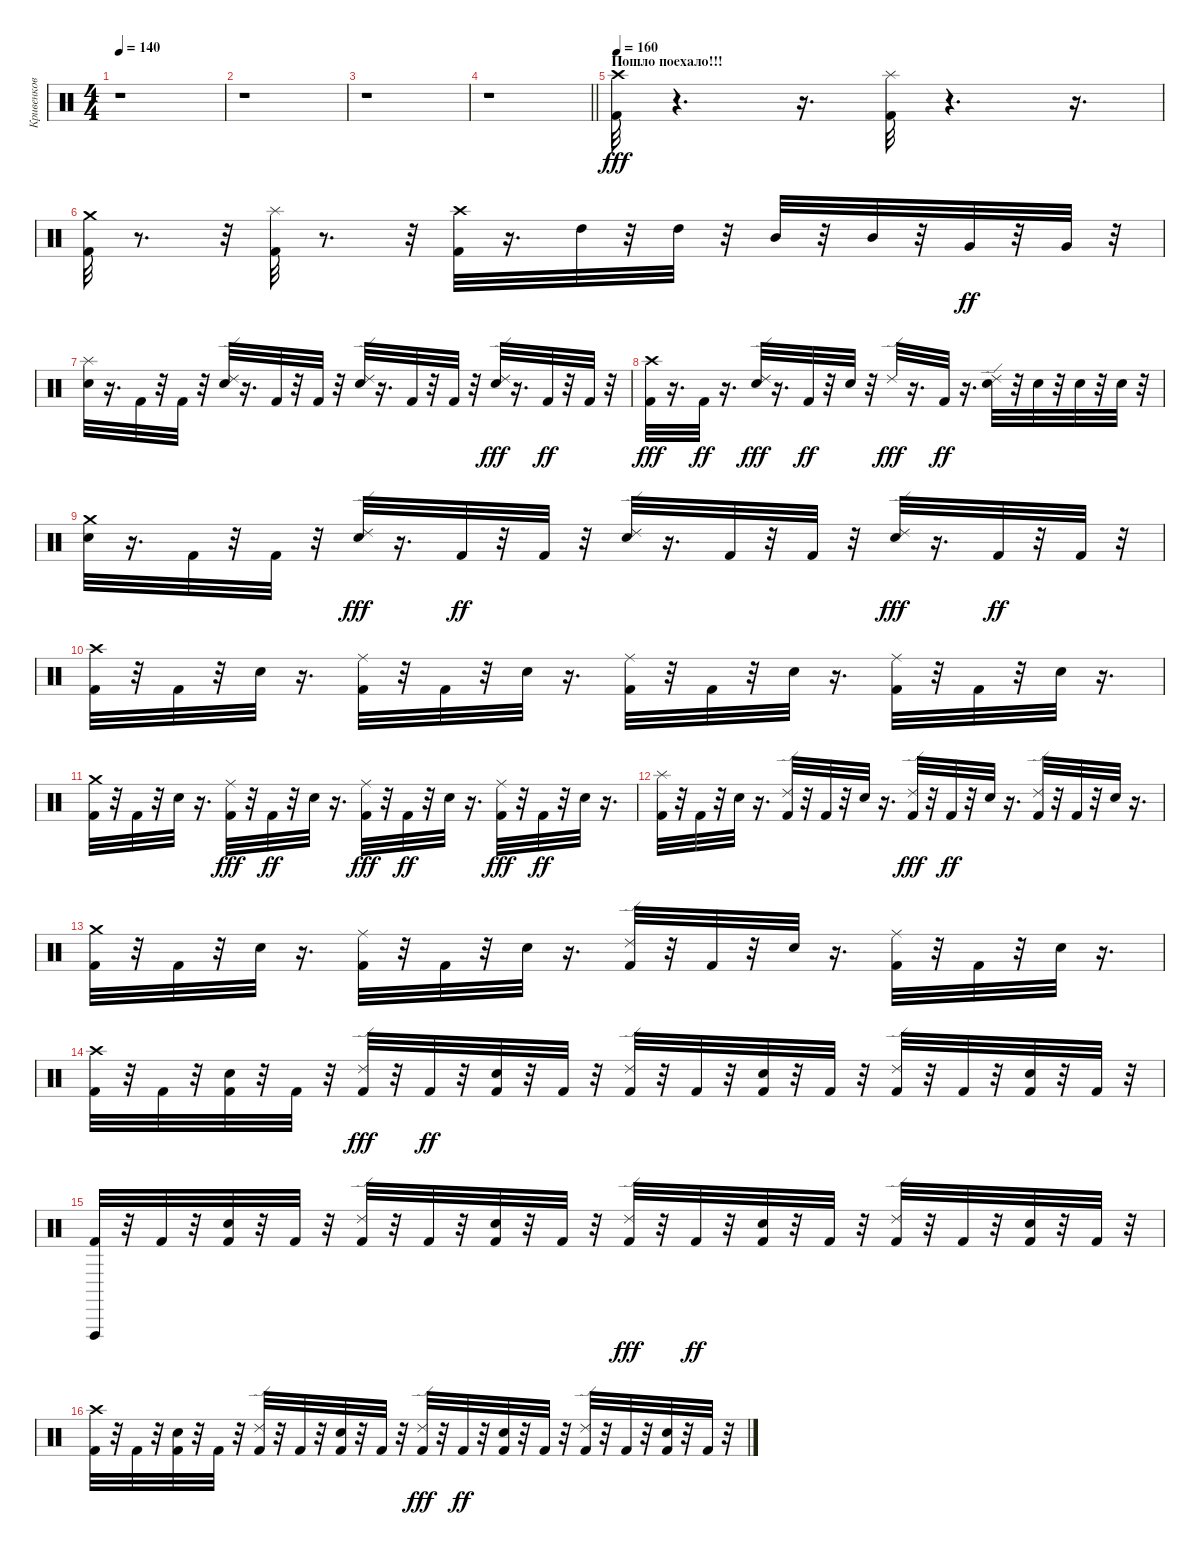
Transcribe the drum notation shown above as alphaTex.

\track ("Кривенков" "Кривенков") {instrument percussion}
\staff {score}
\articulation defaults
\ts (4 4)
\tempo 140
\clef neutral
\ks c
r.1{dy fff} |
r.1 |
r.1 |
\barLineRight lightlight
r.1 |
\section ("" "Пошло поехало!!!")
\tempo 160
("Kick (hit) 2" "Crash high (hit)").32 r.4{d} r.16{d} ("Splash (hit)" "Kick (hit) 2").32 r.4{d} r.16{d} |
("Kick (hit) 2" "Crash medium (hit)").32 r.8{d} r.32 ("Splash (hit)" "Kick (hit) 2").32 r.8{d} r.32 ("Kick (hit) 2" "Crash high (hit)").32 r.16{d} "High Tom (hit)".32 r.32 "High Tom (hit)".32 r.32 "Mid Tom (hit)".32 r.32 "Mid Tom (hit)".32 r.32 "Very Low Tom (hit)".32{dy ff} r.32 "Very Low Tom (hit)".32 r.32 |
("Electric Snare (hit)" "Splash (hit)").32 r.16{d} "Kick (hit) 2".32 r.32 "Kick (hit) 2".32 r.32 ("Ride (edge) 2" "Electric Snare (hit)").32 r.16{d} "Kick (hit) 2".32 r.32 "Kick (hit) 2".32 r.32 ("Ride (edge) 2" "Electric Snare (hit)").32 r.16{d} "Kick (hit) 2".32 r.32 "Kick (hit) 2".32 r.32 ("Electric Snare (hit)" "Ride (edge) 2").32{dy fff} r.16{d} "Kick (hit) 2".32{dy ff} r.32 "Kick (hit) 2".32 r.32 |
("Kick (hit) 2" "Crash high (hit)").32{dy fff} r.16{d} "Kick (hit) 2".32{dy ff} r.16{d} ("Electric Snare (hit)" "Ride (edge) 2").32{dy fff} r.16{d} "Kick (hit) 2".32{dy ff} r.32 "Electric Snare (hit)".32 r.32 "Ride (edge) 2".32{dy fff} r.16{d} "Kick (hit) 2".32{dy ff} r.16{d} ("Ride (edge) 2" "Electric Snare (hit)").32 r.32 "Electric Snare (hit)".32 r.32 "Electric Snare (hit)".32 r.32 "Electric Snare (hit)".32 r.32 |
("Crash medium (hit)" "Electric Snare (hit)").32 r.16{d} "Kick (hit) 2".32 r.32 "Kick (hit) 2".32 r.32 ("Electric Snare (hit)" "Ride (edge) 2").32{dy fff} r.16{d} "Kick (hit) 2".32{dy ff} r.32 "Kick (hit) 2".32 r.32 ("Ride (edge) 2" "Electric Snare (hit)").32 r.16{d} "Kick (hit) 2".32 r.32 "Kick (hit) 2".32 r.32 ("Electric Snare (hit)" "Ride (edge) 2").32{dy fff} r.16{d} "Kick (hit) 2".32{dy ff} r.32 "Kick (hit) 2".32 r.32 |
("Crash high (hit)" "Kick (hit) 2").32 r.32 "Kick (hit) 2".32 r.32 "Electric Snare (hit)".32 r.16{d} ("Ride (middle)" "Kick (hit) 2").32 r.32 "Kick (hit) 2".32 r.32 "Electric Snare (hit)".32 r.16{d} ("Ride (middle)" "Kick (hit) 2").32 r.32 "Kick (hit) 2".32 r.32 "Electric Snare (hit)".32 r.16{d} ("Ride (middle)" "Kick (hit) 2").32 r.32 "Kick (hit) 2".32 r.32 "Electric Snare (hit)".32 r.16{d} |
("Kick (hit) 2" "Crash medium (hit)").32 r.32 "Kick (hit) 2".32 r.32 "Electric Snare (hit)".32 r.16{d} ("Kick (hit) 2" "Ride (middle)").32{dy fff} r.32 "Kick (hit) 2".32{dy ff} r.32 "Electric Snare (hit)".32 r.16{d} ("Kick (hit) 2" "Ride (middle)").32{dy fff} r.32 "Kick (hit) 2".32{dy ff} r.32 "Electric Snare (hit)".32 r.16{d} ("Kick (hit) 2" "Ride (middle)").32{dy fff} r.32 "Kick (hit) 2".32{dy ff} r.32 "Electric Snare (hit)".32 r.16{d} |
("Kick (hit) 2" "Splash (hit)").32 r.32 "Kick (hit) 2".32 r.32 "Electric Snare (hit)".32 r.16{d} ("Ride (edge) 2" "Kick (hit) 2").32 r.32 "Kick (hit) 2".32 r.32 "Electric Snare (hit)".32 r.16{d} ("Kick (hit) 2" "Ride (edge) 2").32{dy fff} r.32 "Kick (hit) 2".32{dy ff} r.32 "Electric Snare (hit)".32 r.16{d} ("Ride (edge) 2" "Kick (hit) 2").32 r.32 "Kick (hit) 2".32 r.32 "Electric Snare (hit)".32 r.16{d} |
("Kick (hit) 2" "Crash medium (hit)").32 r.32 "Kick (hit) 2".32 r.32 "Electric Snare (hit)".32 r.16{d} ("Ride (middle)" "Kick (hit) 2").32 r.32 "Kick (hit) 2".32 r.32 "Electric Snare (hit)".32 r.16{d} ("Ride (edge) 2" "Kick (hit) 2").32 r.32 "Kick (hit) 2".32 r.32 "Electric Snare (hit)".32 r.16{d} ("Ride (middle)" "Kick (hit) 2").32 r.32 "Kick (hit) 2".32 r.32 "Electric Snare (hit)".32 r.16{d} |
("Crash high (hit)" "Kick (hit) 2").32 r.32 "Kick (hit) 2".32 r.32 ("Electric Snare (hit)" "Kick (hit) 2").32 r.32 "Kick (hit) 2".32 r.32 ("Kick (hit) 2" "Ride (edge) 2").32{dy fff} r.32 "Kick (hit) 2".32{dy ff} r.32 ("Electric Snare (hit)" "Kick (hit) 2").32 r.32 "Kick (hit) 2".32 r.32 ("Ride (edge) 2" "Kick (hit) 2").32 r.32 "Kick (hit) 2".32 r.32 ("Electric Snare (hit)" "Kick (hit) 2").32 r.32 "Kick (hit) 2".32 r.32 ("Ride (edge) 2" "Kick (hit) 2").32 r.32 "Kick (hit) 2".32 r.32 ("Kick (hit) 2" "Electric Snare (hit)").32 r.32 "Kick (hit) 2".32 r.32 |
("Vibraslap (hit)" "Kick (hit) 2").32 r.32 "Kick (hit) 2".32 r.32 ("Electric Snare (hit)" "Kick (hit) 2").32 r.32 "Kick (hit) 2".32 r.32 ("Ride (edge) 2" "Kick (hit) 2").32 r.32 "Kick (hit) 2".32 r.32 ("Kick (hit) 2" "Electric Snare (hit)").32 r.32 "Kick (hit) 2".32 r.32 ("Kick (hit) 2" "Ride (edge) 2").32{dy fff} r.32 "Kick (hit) 2".32{dy ff} r.32 ("Electric Snare (hit)" "Kick (hit) 2").32 r.32 "Kick (hit) 2".32 r.32 ("Ride (edge) 2" "Kick (hit) 2").32 r.32 "Kick (hit) 2".32 r.32 ("Kick (hit) 2" "Electric Snare (hit)").32 r.32 "Kick (hit) 2".32 r.32 |
("Crash high (hit)" "Kick (hit) 2").32 r.32 "Kick (hit) 2".32 r.32 ("Kick (hit) 2" "Electric Snare (hit)").32 r.32 "Kick (hit) 2".32 r.32 ("Ride (edge) 2" "Kick (hit) 2").32 r.32 "Kick (hit) 2".32 r.32 ("Kick (hit) 2" "Electric Snare (hit)").32 r.32 "Kick (hit) 2".32 r.32 ("Kick (hit) 2" "Ride (edge) 2").32{dy fff} r.32 "Kick (hit) 2".32{dy ff} r.32 ("Electric Snare (hit)" "Kick (hit) 2").32 r.32 "Kick (hit) 2".32 r.32 ("Ride (edge) 2" "Kick (hit) 2").32 r.32 "Kick (hit) 2".32 r.32 ("Kick (hit) 2" "Electric Snare (hit)").32 r.32 "Kick (hit) 2".32 r.32
